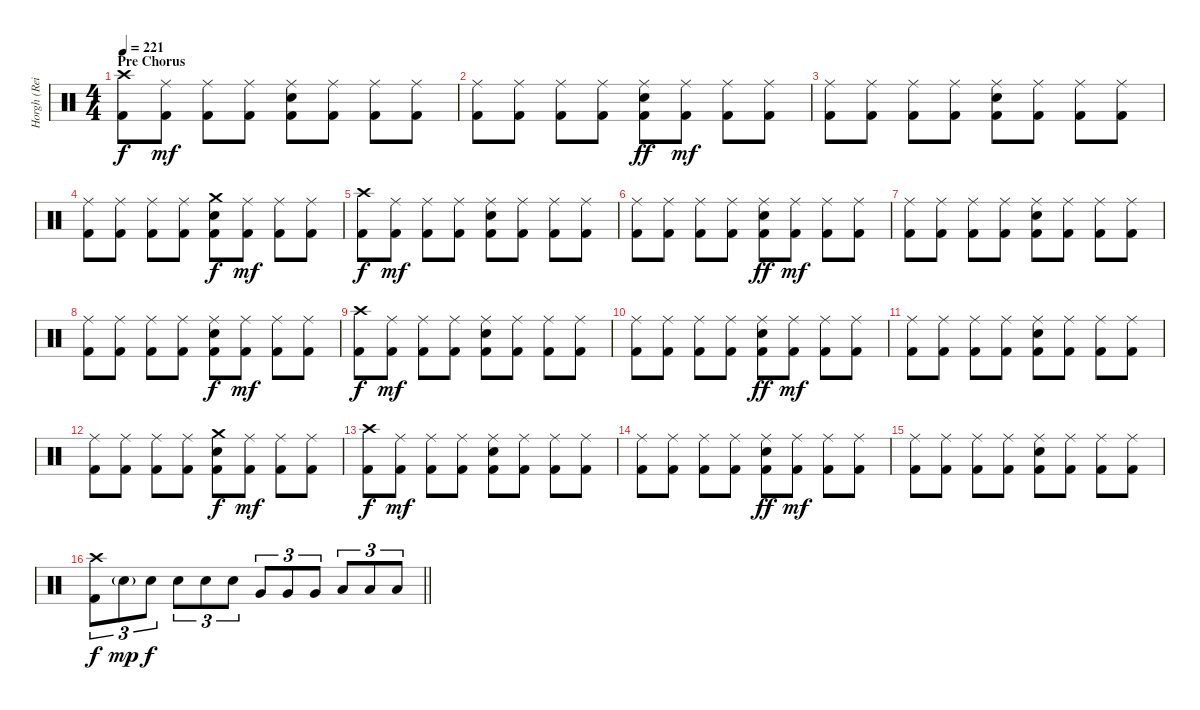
\track ("Horgh (Reidar Horghagen)" "Horgh (Rei") {instrument percussion}
\staff {score}
\articulation defaults
\ts (4 4)
\section ("" "Pre Chorus")
\tempo 221
\clef neutral
\ks c
("Crash high (hit)" "Kick (hit) 2").8{dy f} ("Ride (middle)" "Kick (hit) 2").8{dy mf} ("Ride (middle)" "Kick (hit) 2").8 ("Ride (middle)" "Kick (hit) 2").8 ("Ride (middle)" "Snare (hit) 2" "Kick (hit) 2").8 ("Ride (middle)" "Kick (hit) 2").8 ("Ride (middle)" "Kick (hit) 2").8 ("Ride (middle)" "Kick (hit) 2").8 |
("Ride (middle)" "Kick (hit) 2").8 ("Ride (middle)" "Kick (hit) 2").8 ("Ride (middle)" "Kick (hit) 2").8 ("Ride (middle)" "Kick (hit) 2").8 ("Ride (middle)" "Snare (hit) 2" "Kick (hit) 2").8{dy ff} ("Ride (middle)" "Kick (hit) 2").8{dy mf} ("Ride (middle)" "Kick (hit) 2").8 ("Ride (middle)" "Kick (hit) 2").8 |
("Ride (middle)" "Kick (hit) 2").8 ("Ride (middle)" "Kick (hit) 2").8 ("Ride (middle)" "Kick (hit) 2").8 ("Ride (middle)" "Kick (hit) 2").8 ("Ride (middle)" "Snare (hit) 2" "Kick (hit) 2").8 ("Ride (middle)" "Kick (hit) 2").8 ("Ride (middle)" "Kick (hit) 2").8 ("Ride (middle)" "Kick (hit) 2").8 |
("Ride (middle)" "Kick (hit) 2").8 ("Ride (middle)" "Kick (hit) 2").8 ("Ride (middle)" "Kick (hit) 2").8 ("Ride (middle)" "Kick (hit) 2").8 ("Crash medium (hit)" "Snare (hit) 2" "Kick (hit) 2").8{dy f} ("Ride (middle)" "Kick (hit) 2").8{dy mf} ("Ride (middle)" "Kick (hit) 2").8 ("Ride (middle)" "Kick (hit) 2").8 |
("Crash high (hit)" "Kick (hit) 2").8{dy f} ("Ride (middle)" "Kick (hit) 2").8{dy mf} ("Ride (middle)" "Kick (hit) 2").8 ("Ride (middle)" "Kick (hit) 2").8 ("Ride (middle)" "Snare (hit) 2" "Kick (hit) 2").8 ("Ride (middle)" "Kick (hit) 2").8 ("Ride (middle)" "Kick (hit) 2").8 ("Ride (middle)" "Kick (hit) 2").8 |
("Ride (middle)" "Kick (hit) 2").8 ("Ride (middle)" "Kick (hit) 2").8 ("Ride (middle)" "Kick (hit) 2").8 ("Ride (middle)" "Kick (hit) 2").8 ("Ride (middle)" "Snare (hit) 2" "Kick (hit) 2").8{dy ff} ("Ride (middle)" "Kick (hit) 2").8{dy mf} ("Ride (middle)" "Kick (hit) 2").8 ("Ride (middle)" "Kick (hit) 2").8 |
("Ride (middle)" "Kick (hit) 2").8 ("Ride (middle)" "Kick (hit) 2").8 ("Ride (middle)" "Kick (hit) 2").8 ("Ride (middle)" "Kick (hit) 2").8 ("Ride (middle)" "Snare (hit) 2" "Kick (hit) 2").8 ("Ride (middle)" "Kick (hit) 2").8 ("Ride (middle)" "Kick (hit) 2").8 ("Ride (middle)" "Kick (hit) 2").8 |
("Ride (middle)" "Kick (hit) 2").8 ("Ride (middle)" "Kick (hit) 2").8 ("Ride (middle)" "Kick (hit) 2").8 ("Ride (middle)" "Kick (hit) 2").8 ("Ride (middle)" "Snare (hit) 2" "Kick (hit) 2").8{dy f} ("Ride (middle)" "Kick (hit) 2").8{dy mf} ("Ride (middle)" "Kick (hit) 2").8 ("Ride (middle)" "Kick (hit) 2").8 |
("Crash high (hit)" "Kick (hit) 2").8{dy f} ("Ride (middle)" "Kick (hit) 2").8{dy mf} ("Ride (middle)" "Kick (hit) 2").8 ("Ride (middle)" "Kick (hit) 2").8 ("Ride (middle)" "Snare (hit) 2" "Kick (hit) 2").8 ("Ride (middle)" "Kick (hit) 2").8 ("Ride (middle)" "Kick (hit) 2").8 ("Ride (middle)" "Kick (hit) 2").8 |
("Ride (middle)" "Kick (hit) 2").8 ("Ride (middle)" "Kick (hit) 2").8 ("Ride (middle)" "Kick (hit) 2").8 ("Ride (middle)" "Kick (hit) 2").8 ("Ride (middle)" "Snare (hit) 2" "Kick (hit) 2").8{dy ff} ("Ride (middle)" "Kick (hit) 2").8{dy mf} ("Ride (middle)" "Kick (hit) 2").8 ("Ride (middle)" "Kick (hit) 2").8 |
("Ride (middle)" "Kick (hit) 2").8 ("Ride (middle)" "Kick (hit) 2").8 ("Ride (middle)" "Kick (hit) 2").8 ("Ride (middle)" "Kick (hit) 2").8 ("Ride (middle)" "Snare (hit) 2" "Kick (hit) 2").8 ("Ride (middle)" "Kick (hit) 2").8 ("Ride (middle)" "Kick (hit) 2").8 ("Ride (middle)" "Kick (hit) 2").8 |
("Ride (middle)" "Kick (hit) 2").8 ("Ride (middle)" "Kick (hit) 2").8 ("Ride (middle)" "Kick (hit) 2").8 ("Ride (middle)" "Kick (hit) 2").8 ("Crash medium (hit)" "Snare (hit) 2" "Kick (hit) 2").8{dy f} ("Ride (middle)" "Kick (hit) 2").8{dy mf} ("Ride (middle)" "Kick (hit) 2").8 ("Ride (middle)" "Kick (hit) 2").8 |
("Crash high (hit)" "Kick (hit) 2").8{dy f} ("Ride (middle)" "Kick (hit) 2").8{dy mf} ("Ride (middle)" "Kick (hit) 2").8 ("Ride (middle)" "Kick (hit) 2").8 ("Ride (middle)" "Snare (hit) 2" "Kick (hit) 2").8 ("Ride (middle)" "Kick (hit) 2").8 ("Ride (middle)" "Kick (hit) 2").8 ("Ride (middle)" "Kick (hit) 2").8 |
("Ride (middle)" "Kick (hit) 2").8 ("Ride (middle)" "Kick (hit) 2").8 ("Ride (middle)" "Kick (hit) 2").8 ("Ride (middle)" "Kick (hit) 2").8 ("Ride (middle)" "Snare (hit) 2" "Kick (hit) 2").8{dy ff} ("Ride (middle)" "Kick (hit) 2").8{dy mf} ("Ride (middle)" "Kick (hit) 2").8 ("Ride (middle)" "Kick (hit) 2").8 |
("Ride (middle)" "Kick (hit) 2").8 ("Ride (middle)" "Kick (hit) 2").8 ("Ride (middle)" "Kick (hit) 2").8 ("Ride (middle)" "Kick (hit) 2").8 ("Ride (middle)" "Snare (hit) 2" "Kick (hit) 2").8 ("Ride (middle)" "Kick (hit) 2").8 ("Ride (middle)" "Kick (hit) 2").8 ("Ride (middle)" "Kick (hit) 2").8 |
\barLineRight lightlight
("Crash high (hit)" "Kick (hit) 2").8{tu (3 2) dy f} "Snare (hit) 2"{g}.8{tu (3 2) dy mp} "Snare (hit) 2".8{tu (3 2) dy f} "Snare (hit) 2".8{tu (3 2)} "Snare (hit) 2".8{tu (3 2)} "Snare (hit) 2".8{tu (3 2)} "Very Low Tom (hit)".8{tu (3 2)} "Very Low Tom (hit)".8{tu (3 2)} "Very Low Tom (hit)".8{tu (3 2)} "Low Floor Tom (hit)".8{tu (3 2)} "Low Floor Tom (hit)".8{tu (3 2)} "Low Floor Tom (hit)".8{tu (3 2)}
